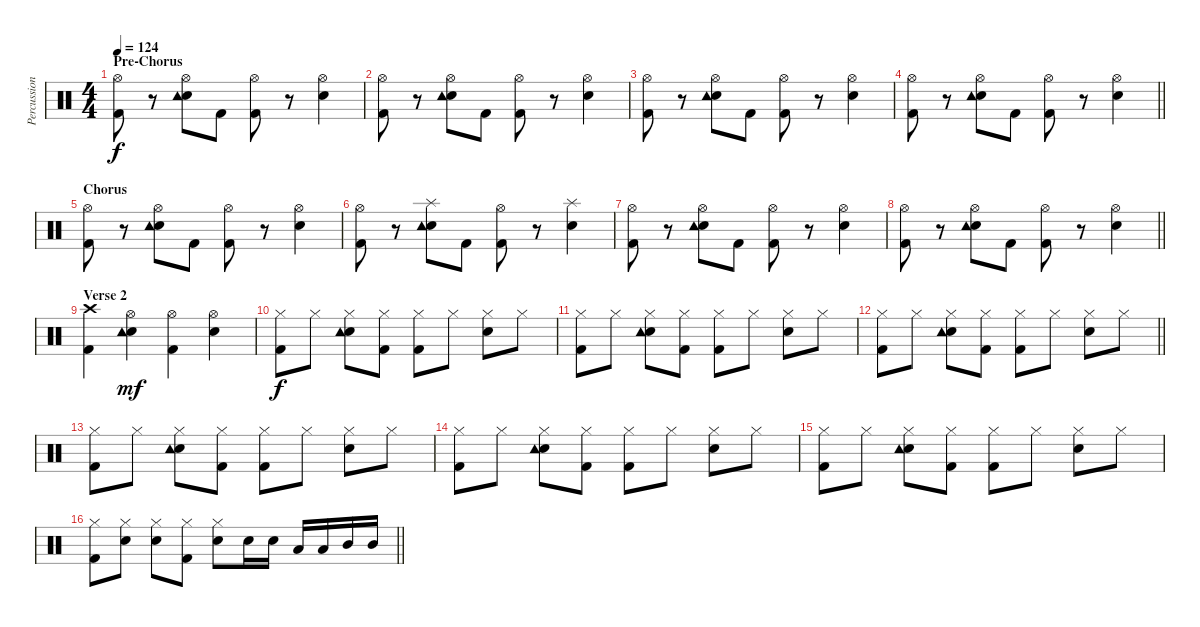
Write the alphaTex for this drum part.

\track ("Percussion" "Percussion") {instrument percussion}
\staff {score}
\articulation defaults
\ts (4 4)
\section ("" "Pre-Chorus")
\tempo 124
\clef neutral
\ks c
("Hi-Hat (open)" "Kick (hit) 2").8{dy f} r.8 ("Hi-Hat (open)" "Electric Snare (hit)" "Tambourine (hit)").8 "Kick (hit) 2".8 ("Hi-Hat (open)" "Kick (hit) 2").8 r.8 ("Hi-Hat (open)" "Electric Snare (hit)").4 |
("Hi-Hat (open)" "Kick (hit) 2").8 r.8 ("Hi-Hat (open)" "Electric Snare (hit)" "Tambourine (hit)").8 "Kick (hit) 2".8 ("Hi-Hat (open)" "Kick (hit) 2").8 r.8 ("Hi-Hat (open)" "Electric Snare (hit)").4 |
("Hi-Hat (open)" "Kick (hit) 2").8 r.8 ("Hi-Hat (open)" "Electric Snare (hit)" "Tambourine (hit)").8 "Kick (hit) 2".8 ("Hi-Hat (open)" "Kick (hit) 2").8 r.8 ("Hi-Hat (open)" "Electric Snare (hit)").4 |
\barLineRight lightlight
("Hi-Hat (open)" "Kick (hit) 2").8 r.8 ("Hi-Hat (open)" "Electric Snare (hit)" "Tambourine (hit)").8 "Kick (hit) 2".8 ("Hi-Hat (open)" "Kick (hit) 2").8 r.8 ("Hi-Hat (open)" "Electric Snare (hit)").4 |
\section ("" "Chorus")
("Hi-Hat (open)" "Kick (hit) 2").8 r.8 ("Hi-Hat (open)" "Electric Snare (hit)" "Tambourine (hit)").8 "Kick (hit) 2".8 ("Hi-Hat (open)" "Kick (hit) 2").8 r.8 ("Hi-Hat (open)" "Electric Snare (hit)").4 |
("Hi-Hat (open)" "Kick (hit) 2").8 r.8 ("Splash (hit)" "Electric Snare (hit)" "Tambourine (hit)").8 "Kick (hit) 2".8 ("Hi-Hat (open)" "Kick (hit) 2").8 r.8 ("Splash (hit)" "Electric Snare (hit)").4 |
("Hi-Hat (open)" "Kick (hit) 2").8 r.8 ("Hi-Hat (open)" "Electric Snare (hit)" "Tambourine (hit)").8 "Kick (hit) 2".8 ("Hi-Hat (open)" "Kick (hit) 2").8 r.8 ("Hi-Hat (open)" "Electric Snare (hit)").4 |
\barLineRight lightlight
("Hi-Hat (open)" "Kick (hit) 2").8 r.8 ("Hi-Hat (open)" "Electric Snare (hit)" "Tambourine (hit)").8 "Kick (hit) 2".8 ("Hi-Hat (open)" "Kick (hit) 2").8 r.8 ("Hi-Hat (open)" "Electric Snare (hit)").4 |
\section ("" "Verse 2")
("Kick (hit) 2" "Crash high (hit)").4 ("Hi-Hat (open)" "Electric Snare (hit)" "Tambourine (hit)").4{dy mf} ("Hi-Hat (open)" "Kick (hit) 2").4 ("Hi-Hat (open)" "Electric Snare (hit)").4 |
("Hi-Hat (closed)" "Kick (hit) 2").8{dy f} "Hi-Hat (closed)".8 ("Hi-Hat (closed)" "Electric Snare (hit)" "Tambourine (hit)").8 ("Hi-Hat (closed)" "Kick (hit) 2").8 ("Hi-Hat (closed)" "Kick (hit) 2").8 "Hi-Hat (closed)".8 ("Hi-Hat (closed)" "Electric Snare (hit)").8 "Hi-Hat (closed)".8 |
("Hi-Hat (closed)" "Kick (hit) 2").8 "Hi-Hat (closed)".8 ("Hi-Hat (closed)" "Electric Snare (hit)" "Tambourine (hit)").8 ("Hi-Hat (closed)" "Kick (hit) 2").8 ("Hi-Hat (closed)" "Kick (hit) 2").8 "Hi-Hat (closed)".8 ("Hi-Hat (closed)" "Electric Snare (hit)").8 "Hi-Hat (closed)".8 |
\barLineRight lightlight
("Hi-Hat (closed)" "Kick (hit) 2").8 "Hi-Hat (closed)".8 ("Hi-Hat (closed)" "Electric Snare (hit)" "Tambourine (hit)").8 ("Hi-Hat (closed)" "Kick (hit) 2").8 ("Hi-Hat (closed)" "Kick (hit) 2").8 "Hi-Hat (closed)".8 ("Hi-Hat (closed)" "Electric Snare (hit)").8 "Hi-Hat (closed)".8 |
("Hi-Hat (closed)" "Kick (hit) 2").8 "Hi-Hat (closed)".8 ("Hi-Hat (closed)" "Electric Snare (hit)" "Tambourine (hit)").8 ("Hi-Hat (closed)" "Kick (hit) 2").8 ("Hi-Hat (closed)" "Kick (hit) 2").8 "Hi-Hat (closed)".8 ("Hi-Hat (closed)" "Electric Snare (hit)").8 "Hi-Hat (closed)".8 |
("Hi-Hat (closed)" "Kick (hit) 2").8 "Hi-Hat (closed)".8 ("Hi-Hat (closed)" "Electric Snare (hit)" "Tambourine (hit)").8 ("Hi-Hat (closed)" "Kick (hit) 2").8 ("Hi-Hat (closed)" "Kick (hit) 2").8 "Hi-Hat (closed)".8 ("Hi-Hat (closed)" "Electric Snare (hit)").8 "Hi-Hat (closed)".8 |
("Hi-Hat (closed)" "Kick (hit) 2").8 "Hi-Hat (closed)".8 ("Hi-Hat (closed)" "Electric Snare (hit)" "Tambourine (hit)").8 ("Hi-Hat (closed)" "Kick (hit) 2").8 ("Hi-Hat (closed)" "Kick (hit) 2").8 "Hi-Hat (closed)".8 ("Hi-Hat (closed)" "Electric Snare (hit)").8 "Hi-Hat (closed)".8 |
\barLineRight lightlight
("Hi-Hat (closed)" "Kick (hit) 2").8 ("Hi-Hat (closed)" "Electric Snare (hit)").8 ("Hi-Hat (closed)" "Electric Snare (hit)").8 ("Hi-Hat (closed)" "Kick (hit) 2").8 ("Hi-Hat (closed)" "Electric Snare (hit)").8 "Electric Snare (hit)".16 "Electric Snare (hit)".16 "Low Tom (hit)".16 "Low Tom (hit)".16 "Mid Tom (hit)".16 "Mid Tom (hit)".16
